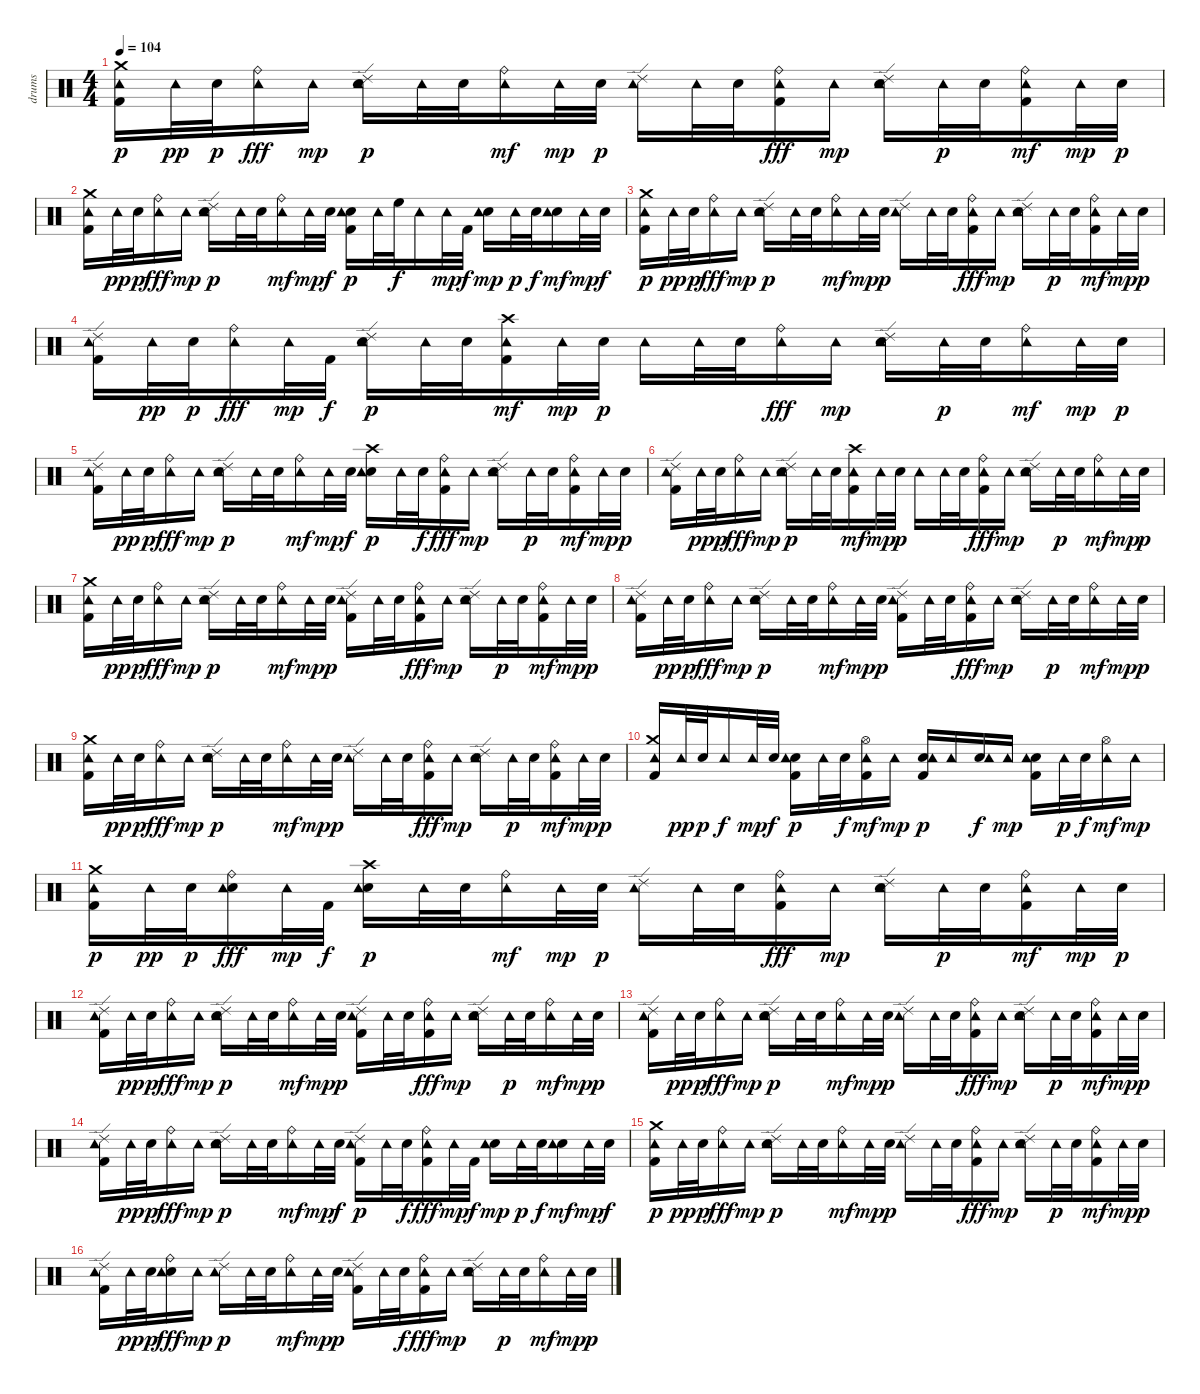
\track ("drums" "drums") {instrument percussion}
\staff {score}
\articulation defaults
\ts (4 4)
\tempo 104
\clef neutral
\ks c
("Kick (hit) 2" "Crash medium (hit)" "Tambourine (hit)").16{dy p} "Tambourine (hit)".32{dy pp} "Electric Snare (hit)".32{dy p} ("Ride (bell)" "Tambourine (hit)").16{dy fff} "Tambourine (hit)".16{dy mp} ("Electric Snare (hit)" "Ride (edge) 2" "Tambourine (hit)").16{dy p} "Tambourine (hit)".32 "Electric Snare (hit)".32 ("Ride (bell)" "Tambourine (hit)").16{dy mf} "Tambourine (hit)".32{dy mp} "Electric Snare (hit)".32{dy p} ("Ride (edge) 2" "Tambourine (hit)").16 "Tambourine (hit)".32 "Electric Snare (hit)".32 ("Kick (hit) 2" "Ride (bell)" "Tambourine (hit)").16{dy fff} "Tambourine (hit)".16{dy mp} ("Electric Snare (hit)" "Ride (edge) 2" "Tambourine (hit)").16 "Tambourine (hit)".32{dy p} "Electric Snare (hit)".32 ("Kick (hit) 2" "Ride (bell)" "Tambourine (hit)").16{dy mf} "Tambourine (hit)".32{dy mp} "Electric Snare (hit)".32{dy p} |
("Kick (hit) 2" "Crash medium (hit)" "Tambourine (hit)").16 "Tambourine (hit)".32{dy pp} "Electric Snare (hit)".32{dy p} ("Ride (bell)" "Tambourine (hit)").16{dy fff} "Tambourine (hit)".16{dy mp} ("Electric Snare (hit)" "Ride (edge) 2" "Tambourine (hit)").16{dy p} "Tambourine (hit)".32 "Electric Snare (hit)".32 ("Ride (bell)" "Tambourine (hit)").16{dy mf} "Tambourine (hit)".32{dy mp} "Electric Snare (hit)".32{dy f} ("Kick (hit) 2" "Electric Snare (hit)" "Tambourine (hit)").16{dy p} "Tambourine (hit)".32 "High Floor Tom (hit)".32{dy f} "Tambourine (hit)".16 "Tambourine (hit)".32{dy mp} "Kick (hit) 2".32{dy f} ("Electric Snare (hit)" "Tambourine (hit)").16{dy mp} "Tambourine (hit)".32{dy p} "Electric Snare (hit)".32{dy f} ("Electric Snare (hit)" "Tambourine (hit)").16{dy mf} "Tambourine (hit)".32{dy mp} "Electric Snare (hit)".32{dy f} |
("Kick (hit) 2" "Crash medium (hit)" "Tambourine (hit)").16{dy p} "Tambourine (hit)".32{dy pp} "Electric Snare (hit)".32{dy p} ("Ride (bell)" "Tambourine (hit)").16{dy fff} "Tambourine (hit)".16{dy mp} ("Electric Snare (hit)" "Ride (edge) 2" "Tambourine (hit)").16{dy p} "Tambourine (hit)".32 "Electric Snare (hit)".32 ("Ride (bell)" "Tambourine (hit)").16{dy mf} "Tambourine (hit)".32{dy mp} "Electric Snare (hit)".32{dy p} ("Ride (edge) 2" "Tambourine (hit)").16 "Tambourine (hit)".32 "Electric Snare (hit)".32 ("Kick (hit) 2" "Ride (bell)" "Tambourine (hit)").16{dy fff} "Tambourine (hit)".16{dy mp} ("Electric Snare (hit)" "Ride (edge) 2" "Tambourine (hit)").16 "Tambourine (hit)".32{dy p} "Electric Snare (hit)".32 ("Kick (hit) 2" "Ride (bell)" "Tambourine (hit)").16{dy mf} "Tambourine (hit)".32{dy mp} "Electric Snare (hit)".32{dy p} |
("Kick (hit) 2" "Ride (edge) 2" "Tambourine (hit)").16 "Tambourine (hit)".32{dy pp} "Electric Snare (hit)".32{dy p} ("Ride (bell)" "Tambourine (hit)").16{dy fff} "Tambourine (hit)".32{dy mp} "Kick (hit) 2".32{dy f} ("Electric Snare (hit)" "Ride (edge) 2" "Tambourine (hit)").16{dy p} "Tambourine (hit)".32 "Electric Snare (hit)".32 ("Kick (hit) 2" "Crash high (hit)" "Tambourine (hit)").16{dy mf} "Tambourine (hit)".32{dy mp} "Electric Snare (hit)".32{dy p} "Tambourine (hit)".16 "Tambourine (hit)".32 "Electric Snare (hit)".32 ("Ride (bell)" "Tambourine (hit)").16{dy fff} "Tambourine (hit)".16{dy mp} ("Electric Snare (hit)" "Ride (edge) 2" "Tambourine (hit)").16 "Tambourine (hit)".32{dy p} "Electric Snare (hit)".32 ("Ride (bell)" "Tambourine (hit)").16{dy mf} "Tambourine (hit)".32{dy mp} "Electric Snare (hit)".32{dy p} |
("Kick (hit) 2" "Ride (edge) 2" "Tambourine (hit)").16 "Tambourine (hit)".32{dy pp} "Electric Snare (hit)".32{dy p} ("Ride (bell)" "Tambourine (hit)").16{dy fff} "Tambourine (hit)".16{dy mp} ("Electric Snare (hit)" "Ride (edge) 2" "Tambourine (hit)").16{dy p} "Tambourine (hit)".32 "Electric Snare (hit)".32 ("Ride (bell)" "Tambourine (hit)").16{dy mf} "Tambourine (hit)".32{dy mp} "Electric Snare (hit)".32{dy f} ("Electric Snare (hit)" "Crash high (hit)" "Tambourine (hit)").16{dy p} "Tambourine (hit)".32 "Electric Snare (hit)".32{dy f} ("Kick (hit) 2" "Ride (bell)" "Tambourine (hit)").16{dy fff} "Tambourine (hit)".16{dy mp} ("Electric Snare (hit)" "Ride (edge) 2" "Tambourine (hit)").16 "Tambourine (hit)".32{dy p} "Electric Snare (hit)".32 ("Kick (hit) 2" "Ride (bell)" "Tambourine (hit)").16{dy mf} "Tambourine (hit)".32{dy mp} "Electric Snare (hit)".32{dy p} |
("Kick (hit) 2" "Ride (edge) 2" "Tambourine (hit)").16 "Tambourine (hit)".32{dy pp} "Electric Snare (hit)".32{dy p} ("Ride (bell)" "Tambourine (hit)").16{dy fff} "Tambourine (hit)".16{dy mp} ("Electric Snare (hit)" "Ride (edge) 2" "Tambourine (hit)").16{dy p} "Tambourine (hit)".32 "Electric Snare (hit)".32 ("Kick (hit) 2" "Crash high (hit)" "Tambourine (hit)").16{dy mf} "Tambourine (hit)".32{dy mp} "Electric Snare (hit)".32{dy p} "Tambourine (hit)".16 "Tambourine (hit)".32 "Electric Snare (hit)".32 ("Kick (hit) 2" "Ride (bell)" "Tambourine (hit)").16{dy fff} "Tambourine (hit)".16{dy mp} ("Electric Snare (hit)" "Ride (edge) 2" "Tambourine (hit)").16 "Tambourine (hit)".32{dy p} "Electric Snare (hit)".32 ("Ride (bell)" "Tambourine (hit)").16{dy mf} "Tambourine (hit)".32{dy mp} "Electric Snare (hit)".32{dy p} |
("Kick (hit) 2" "Crash medium (hit)" "Tambourine (hit)").16 "Tambourine (hit)".32{dy pp} "Electric Snare (hit)".32{dy p} ("Ride (bell)" "Tambourine (hit)").16{dy fff} "Tambourine (hit)".16{dy mp} ("Electric Snare (hit)" "Ride (edge) 2" "Tambourine (hit)").16{dy p} "Tambourine (hit)".32 "Electric Snare (hit)".32 ("Ride (bell)" "Tambourine (hit)").16{dy mf} "Tambourine (hit)".32{dy mp} "Electric Snare (hit)".32{dy p} ("Kick (hit) 2" "Ride (edge) 2" "Tambourine (hit)").16 "Tambourine (hit)".32 "Electric Snare (hit)".32 ("Kick (hit) 2" "Ride (bell)" "Tambourine (hit)").16{dy fff} "Tambourine (hit)".16{dy mp} ("Electric Snare (hit)" "Ride (edge) 2" "Tambourine (hit)").16 "Tambourine (hit)".32{dy p} "Electric Snare (hit)".32 ("Kick (hit) 2" "Ride (bell)" "Tambourine (hit)").16{dy mf} "Tambourine (hit)".32{dy mp} "Electric Snare (hit)".32{dy p} |
("Kick (hit) 2" "Ride (edge) 2" "Tambourine (hit)").16 "Tambourine (hit)".32{dy pp} "Electric Snare (hit)".32{dy p} ("Ride (bell)" "Tambourine (hit)").16{dy fff} "Tambourine (hit)".16{dy mp} ("Electric Snare (hit)" "Ride (edge) 2" "Tambourine (hit)").16{dy p} "Tambourine (hit)".32 "Electric Snare (hit)".32 ("Ride (bell)" "Tambourine (hit)").16{dy mf} "Tambourine (hit)".32{dy mp} "Electric Snare (hit)".32{dy p} ("Kick (hit) 2" "Ride (edge) 2" "Tambourine (hit)").16 "Tambourine (hit)".32 "Electric Snare (hit)".32 ("Kick (hit) 2" "Ride (bell)" "Tambourine (hit)").16{dy fff} "Tambourine (hit)".16{dy mp} ("Electric Snare (hit)" "Ride (edge) 2" "Tambourine (hit)").16 "Tambourine (hit)".32{dy p} "Electric Snare (hit)".32 ("Ride (bell)" "Tambourine (hit)").16{dy mf} "Tambourine (hit)".32{dy mp} "Electric Snare (hit)".32{dy p} |
("Kick (hit) 2" "Crash medium (hit)" "Tambourine (hit)").16 "Tambourine (hit)".32{dy pp} "Electric Snare (hit)".32{dy p} ("Ride (bell)" "Tambourine (hit)").16{dy fff} "Tambourine (hit)".16{dy mp} ("Electric Snare (hit)" "Ride (edge) 2" "Tambourine (hit)").16{dy p} "Tambourine (hit)".32 "Electric Snare (hit)".32 ("Ride (bell)" "Tambourine (hit)").16{dy mf} "Tambourine (hit)".32{dy mp} "Electric Snare (hit)".32{dy p} ("Ride (edge) 2" "Tambourine (hit)").16 "Tambourine (hit)".32 "Electric Snare (hit)".32 ("Kick (hit) 2" "Ride (bell)" "Tambourine (hit)").16{dy fff} "Tambourine (hit)".16{dy mp} ("Electric Snare (hit)" "Ride (edge) 2" "Tambourine (hit)").16 "Tambourine (hit)".32{dy p} "Electric Snare (hit)".32 ("Kick (hit) 2" "Ride (bell)" "Tambourine (hit)").16{dy mf} "Tambourine (hit)".32{dy mp} "Electric Snare (hit)".32{dy p} |
("Kick (hit) 2" "Crash medium (hit)" "Tambourine (hit)").16 "Tambourine (hit)".32{dy pp} "Electric Snare (hit)".32{dy p} "Tambourine (hit)".16{dy f} "Tambourine (hit)".32{dy mp} "Electric Snare (hit)".32{dy f} ("Kick (hit) 2" "Electric Snare (hit)" "Tambourine (hit)").16{dy p} "Tambourine (hit)".32 "Electric Snare (hit)".32{dy f} ("Kick (hit) 2" "Hi-Hat (open)" "Tambourine (hit)").16{dy mf} "Tambourine (hit)".16{dy mp} ("Kick (hit) 2" "Electric Snare (hit)" "Tambourine (hit)").16{dy p} "Tambourine (hit)".16 ("Electric Snare (hit)" "Tambourine (hit)").16{dy f} "Tambourine (hit)".16{dy mp} ("Electric Snare (hit)" "Kick (hit) 2" "Tambourine (hit)").16 "Tambourine (hit)".32{dy p} "Electric Snare (hit)".32{dy f} ("Hi-Hat (open)" "Tambourine (hit)").16{dy mf} "Tambourine (hit)".16{dy mp} |
("Kick (hit) 2" "Crash medium (hit)" "Tambourine (hit)").16{dy p} "Tambourine (hit)".32{dy pp} "Electric Snare (hit)".32{dy p} ("Electric Snare (hit)" "Ride (bell)" "Tambourine (hit)").16{dy fff} "Tambourine (hit)".32{dy mp} "Kick (hit) 2".32{dy f} ("Electric Snare (hit)" "Crash high (hit)" "Tambourine (hit)").16{dy p} "Tambourine (hit)".32 "Electric Snare (hit)".32 ("Ride (bell)" "Tambourine (hit)").16{dy mf} "Tambourine (hit)".32{dy mp} "Electric Snare (hit)".32{dy p} ("Ride (edge) 2" "Tambourine (hit)").16 "Tambourine (hit)".32 "Electric Snare (hit)".32 ("Kick (hit) 2" "Ride (bell)" "Tambourine (hit)").16{dy fff} "Tambourine (hit)".16{dy mp} ("Electric Snare (hit)" "Ride (edge) 2" "Tambourine (hit)").16 "Tambourine (hit)".32{dy p} "Electric Snare (hit)".32 ("Kick (hit) 2" "Ride (bell)" "Tambourine (hit)").16{dy mf} "Tambourine (hit)".32{dy mp} "Electric Snare (hit)".32{dy p} |
("Kick (hit) 2" "Ride (edge) 2" "Tambourine (hit)").16 "Tambourine (hit)".32{dy pp} "Electric Snare (hit)".32{dy p} ("Ride (bell)" "Tambourine (hit)").16{dy fff} "Tambourine (hit)".16{dy mp} ("Electric Snare (hit)" "Ride (edge) 2" "Tambourine (hit)").16{dy p} "Tambourine (hit)".32 "Electric Snare (hit)".32 ("Ride (bell)" "Tambourine (hit)").16{dy mf} "Tambourine (hit)".32{dy mp} "Electric Snare (hit)".32{dy p} ("Kick (hit) 2" "Ride (edge) 2" "Tambourine (hit)").16 "Tambourine (hit)".32 "Electric Snare (hit)".32 ("Kick (hit) 2" "Ride (bell)" "Tambourine (hit)").16{dy fff} "Tambourine (hit)".16{dy mp} ("Electric Snare (hit)" "Ride (edge) 2" "Tambourine (hit)").16 "Tambourine (hit)".32{dy p} "Electric Snare (hit)".32 ("Ride (bell)" "Tambourine (hit)").16{dy mf} "Tambourine (hit)".32{dy mp} "Electric Snare (hit)".32{dy p} |
("Kick (hit) 2" "Ride (edge) 2" "Tambourine (hit)").16 "Tambourine (hit)".32{dy pp} "Electric Snare (hit)".32{dy p} ("Ride (bell)" "Tambourine (hit)").16{dy fff} "Tambourine (hit)".16{dy mp} ("Electric Snare (hit)" "Ride (edge) 2" "Tambourine (hit)").16{dy p} "Tambourine (hit)".32 "Electric Snare (hit)".32 ("Ride (bell)" "Tambourine (hit)").16{dy mf} "Tambourine (hit)".32{dy mp} "Electric Snare (hit)".32{dy p} ("Ride (edge) 2" "Tambourine (hit)").16 "Tambourine (hit)".32 "Electric Snare (hit)".32 ("Kick (hit) 2" "Ride (bell)" "Tambourine (hit)").16{dy fff} "Tambourine (hit)".16{dy mp} ("Electric Snare (hit)" "Ride (edge) 2" "Tambourine (hit)").16 "Tambourine (hit)".32{dy p} "Electric Snare (hit)".32 ("Kick (hit) 2" "Ride (bell)" "Tambourine (hit)").16{dy mf} "Tambourine (hit)".32{dy mp} "Electric Snare (hit)".32{dy p} |
("Kick (hit) 2" "Ride (edge) 2" "Tambourine (hit)").16 "Tambourine (hit)".32{dy pp} "Electric Snare (hit)".32{dy p} ("Ride (bell)" "Tambourine (hit)").16{dy fff} "Tambourine (hit)".16{dy mp} ("Electric Snare (hit)" "Ride (edge) 2" "Tambourine (hit)").16{dy p} "Tambourine (hit)".32 "Electric Snare (hit)".32 ("Ride (bell)" "Tambourine (hit)").16{dy mf} "Tambourine (hit)".32{dy mp} "Electric Snare (hit)".32{dy f} ("Kick (hit) 2" "Ride (edge) 2" "Tambourine (hit)").16{dy p} "Tambourine (hit)".32 "Electric Snare (hit)".32{dy f} ("Kick (hit) 2" "Ride (bell)" "Tambourine (hit)").16{dy fff} "Tambourine (hit)".32{dy mp} "Kick (hit) 2".32{dy f} ("Electric Snare (hit)" "Tambourine (hit)").16{dy mp} "Tambourine (hit)".32{dy p} "Electric Snare (hit)".32{dy f} ("Electric Snare (hit)" "Tambourine (hit)").16{dy mf} "Tambourine (hit)".32{dy mp} "Electric Snare (hit)".32{dy f} |
("Kick (hit) 2" "Crash medium (hit)" "Tambourine (hit)").16{dy p} "Tambourine (hit)".32{dy pp} "Electric Snare (hit)".32{dy p} ("Ride (bell)" "Tambourine (hit)").16{dy fff} "Tambourine (hit)".16{dy mp} ("Electric Snare (hit)" "Ride (edge) 2" "Tambourine (hit)").16{dy p} "Tambourine (hit)".32 "Electric Snare (hit)".32 ("Ride (bell)" "Tambourine (hit)").16{dy mf} "Tambourine (hit)".32{dy mp} "Electric Snare (hit)".32{dy p} ("Ride (edge) 2" "Tambourine (hit)").16 "Tambourine (hit)".32 "Electric Snare (hit)".32 ("Kick (hit) 2" "Ride (bell)" "Tambourine (hit)").16{dy fff} "Tambourine (hit)".16{dy mp} ("Electric Snare (hit)" "Ride (edge) 2" "Tambourine (hit)").16 "Tambourine (hit)".32{dy p} "Electric Snare (hit)".32 ("Kick (hit) 2" "Ride (bell)" "Tambourine (hit)").16{dy mf} "Tambourine (hit)".32{dy mp} "Electric Snare (hit)".32{dy p} |
("Kick (hit) 2" "Ride (edge) 2" "Tambourine (hit)").16 "Tambourine (hit)".32{dy pp} "Electric Snare (hit)".32{dy p} ("Electric Snare (hit)" "Ride (bell)" "Tambourine (hit)").16{dy fff} "Tambourine (hit)".16{dy mp} ("Ride (edge) 2" "Tambourine (hit)").16{dy p} "Tambourine (hit)".32 "Electric Snare (hit)".32 ("Ride (bell)" "Tambourine (hit)").16{dy mf} "Tambourine (hit)".32{dy mp} "Electric Snare (hit)".32{dy p} ("Kick (hit) 2" "Ride (edge) 2" "Tambourine (hit)").16 "Tambourine (hit)".32 "Electric Snare (hit)".32{dy f} ("Kick (hit) 2" "Ride (bell)" "Tambourine (hit)").16{dy fff} "Tambourine (hit)".16{dy mp} ("Electric Snare (hit)" "Ride (edge) 2" "Tambourine (hit)").16 "Tambourine (hit)".32{dy p} "Electric Snare (hit)".32 ("Ride (bell)" "Tambourine (hit)").16{dy mf} "Tambourine (hit)".32{dy mp} "Electric Snare (hit)".32{dy p}
